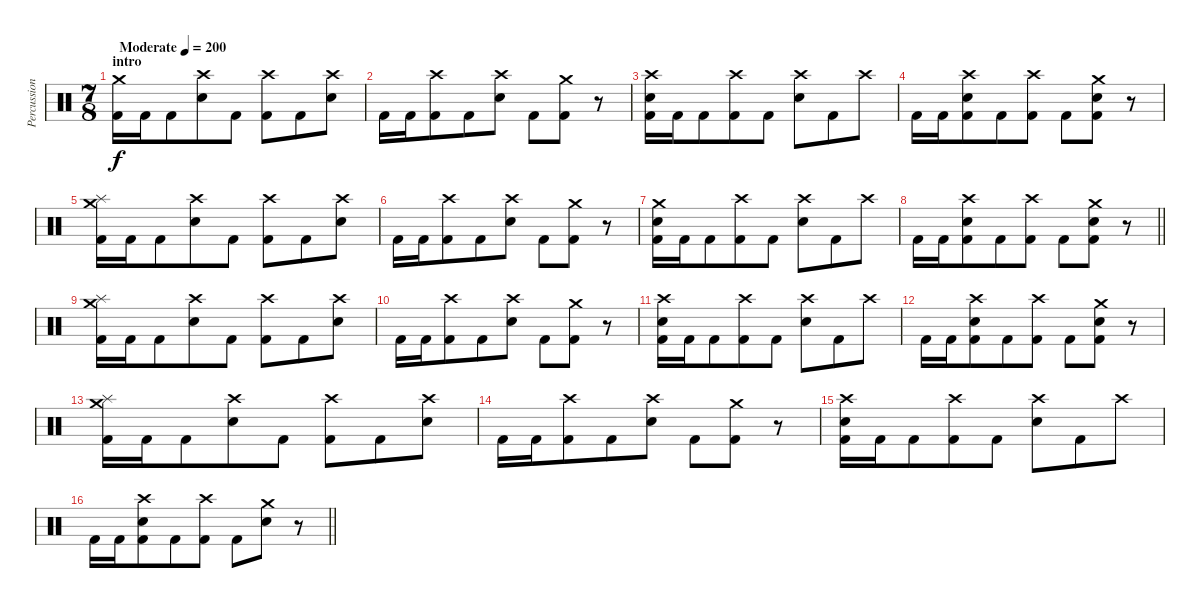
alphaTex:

\track ("Percussions" "Percussion") {instrument percussion}
\staff {score}
\articulation defaults
\ts (7 8)
\section ("" "intro")
\tempo (200 "Moderate")
\clef neutral
\ks c
("Crash medium (hit)" "Kick (hit) 2").16{dy f} "Kick (hit) 2".16 "Kick (hit) 2".8 ("Crash high (hit)" "Electric Snare (hit)").8 "Kick (hit) 2".8 ("Crash high (hit)" "Kick (hit) 2").8 "Kick (hit) 2".8 ("Crash high (hit)" "Electric Snare (hit)").8 |
"Kick (hit) 2".16 "Kick (hit) 2".16 ("Crash high (hit)" "Kick (hit) 2").8 "Kick (hit) 2".8 ("Crash high (hit)" "Electric Snare (hit)").8 "Kick (hit) 2".8 ("Crash medium (hit)" "Kick (hit) 2").8 r.8 |
("Crash high (hit)" "Electric Snare (hit)" "Kick (hit) 2").16 "Kick (hit) 2".16 "Kick (hit) 2".8 ("Crash high (hit)" "Kick (hit) 2").8 "Kick (hit) 2".8 ("Crash high (hit)" "Electric Snare (hit)").8 "Kick (hit) 2".8 "Crash high (hit)".8 |
"Kick (hit) 2".16 "Kick (hit) 2".16 ("Crash high (hit)" "Electric Snare (hit)" "Kick (hit) 2").8 "Kick (hit) 2".8 ("Crash high (hit)" "Kick (hit) 2").8 "Kick (hit) 2".8 ("Crash medium (hit)" "Electric Snare (hit)" "Kick (hit) 2").8 r.8 |
("Splash (hit)" "Crash medium (hit)" "Kick (hit) 2").16 "Kick (hit) 2".16 "Kick (hit) 2".8 ("Crash high (hit)" "Electric Snare (hit)").8 "Kick (hit) 2".8 ("Crash high (hit)" "Kick (hit) 2").8 "Kick (hit) 2".8 ("Crash high (hit)" "Electric Snare (hit)").8 |
"Kick (hit) 2".16 "Kick (hit) 2".16 ("Crash high (hit)" "Kick (hit) 2").8 "Kick (hit) 2".8 ("Crash high (hit)" "Electric Snare (hit)").8 "Kick (hit) 2".8 ("Crash medium (hit)" "Kick (hit) 2").8 r.8 |
("Crash medium (hit)" "Electric Snare (hit)" "Kick (hit) 2").16 "Kick (hit) 2".16 "Kick (hit) 2".8 ("Crash high (hit)" "Kick (hit) 2").8 "Kick (hit) 2".8 ("Crash high (hit)" "Electric Snare (hit)").8 "Kick (hit) 2".8 "Crash high (hit)".8 |
\barLineRight lightlight "Kick (hit) 2".16 "Kick (hit) 2".16
("Crash high (hit)" "Electric Snare (hit)" "Kick (hit) 2").8 "Kick (hit) 2".8 ("Crash high (hit)" "Kick (hit) 2").8 "Kick (hit) 2".8 ("Crash medium (hit)" "Electric Snare (hit)" "Kick (hit) 2").8 r.8 |
("Crash medium (hit)" "Splash (hit)" "Kick (hit) 2").16 "Kick (hit) 2".16 "Kick (hit) 2".8 ("Crash high (hit)" "Electric Snare (hit)").8 "Kick (hit) 2".8 ("Crash high (hit)" "Kick (hit) 2").8 "Kick (hit) 2".8 ("Crash high (hit)" "Electric Snare (hit)").8 |
"Kick (hit) 2".16 "Kick (hit) 2".16 ("Crash high (hit)" "Kick (hit) 2").8 "Kick (hit) 2".8 ("Crash high (hit)" "Electric Snare (hit)").8 "Kick (hit) 2".8 ("Crash medium (hit)" "Kick (hit) 2").8 r.8 |
("Crash high (hit)" "Electric Snare (hit)" "Kick (hit) 2").16 "Kick (hit) 2".16 "Kick (hit) 2".8 ("Crash high (hit)" "Kick (hit) 2").8 "Kick (hit) 2".8 ("Crash high (hit)" "Electric Snare (hit)").8 "Kick (hit) 2".8 "Crash high (hit)".8 |
"Kick (hit) 2".16 "Kick (hit) 2".16 ("Crash high (hit)" "Electric Snare (hit)" "Kick (hit) 2").8 "Kick (hit) 2".8 ("Crash high (hit)" "Kick (hit) 2").8 "Kick (hit) 2".8 ("Crash medium (hit)" "Electric Snare (hit)" "Kick (hit) 2").8 r.8 |
("Crash medium (hit)" "Splash (hit)" "Kick (hit) 2").16 "Kick (hit) 2".16 "Kick (hit) 2".8 ("Crash high (hit)" "Electric Snare (hit)").8 "Kick (hit) 2".8 ("Crash high (hit)" "Kick (hit) 2").8 "Kick (hit) 2".8 ("Crash high (hit)" "Electric Snare (hit)").8 |
"Kick (hit) 2".16 "Kick (hit) 2".16 ("Crash high (hit)" "Kick (hit) 2").8 "Kick (hit) 2".8 ("Crash high (hit)" "Electric Snare (hit)").8 "Kick (hit) 2".8 ("Crash medium (hit)" "Kick (hit) 2").8 r.8 |
("Crash high (hit)" "Electric Snare (hit)" "Kick (hit) 2").16 "Kick (hit) 2".16 "Kick (hit) 2".8 ("Crash high (hit)" "Kick (hit) 2").8 "Kick (hit) 2".8 ("Crash high (hit)" "Electric Snare (hit)").8 "Kick (hit) 2".8 "Crash high (hit)".8 |
\barLineRight lightlight "Kick (hit) 2".16 "Kick (hit) 2".16
("Crash high (hit)" "Electric Snare (hit)" "Kick (hit) 2").8 "Kick (hit) 2".8 ("Crash high (hit)" "Kick (hit) 2").8 "Kick (hit) 2".8 ("Crash medium (hit)" "Electric Snare (hit)").8 r.8
